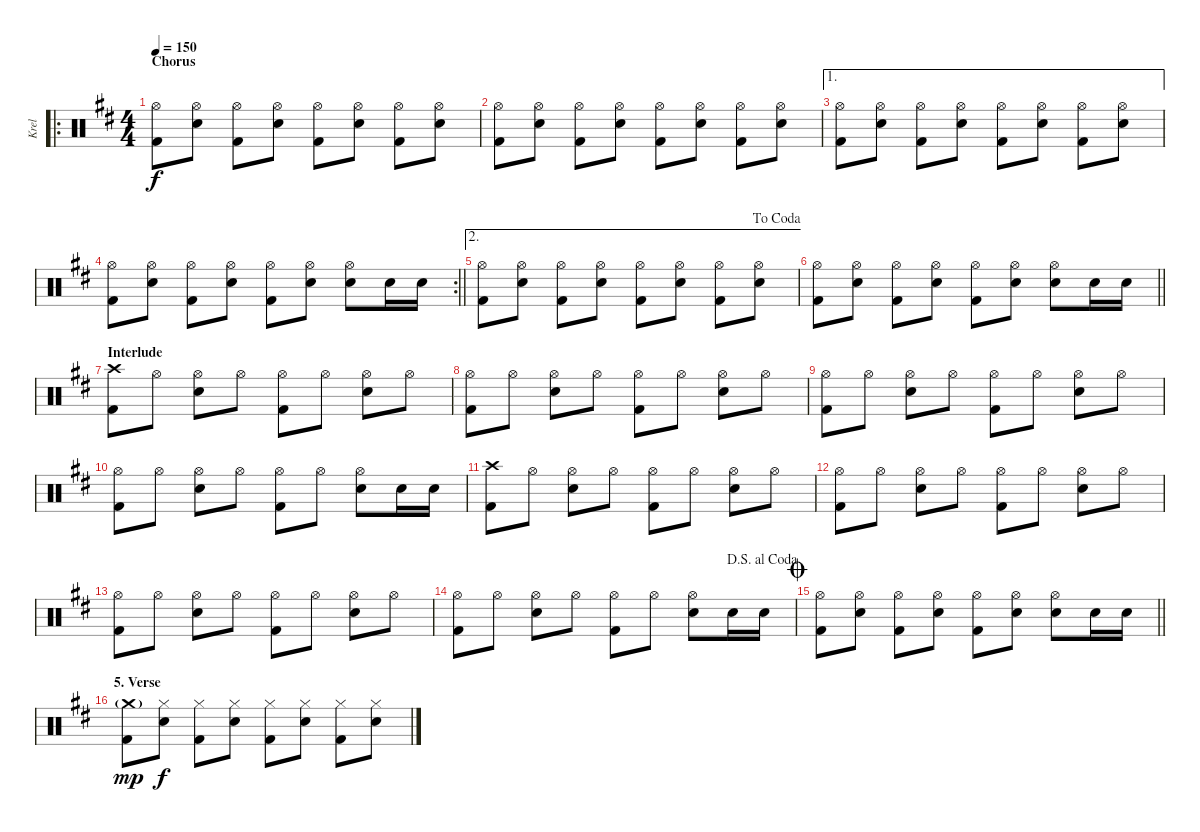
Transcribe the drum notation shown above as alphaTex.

\track ("Krel" "Krel") {instrument percussion}
\staff {score}
\articulation defaults
\ro
\ts (4 4)
\section ("" "Chorus")
\tempo 150
\clef neutral
\ks d
("Hi-Hat (open)" "Kick (hit) 2").8{dy f} ("Hi-Hat (open)" "Snare (hit) 2").8 ("Hi-Hat (open)" "Kick (hit) 2").8 ("Hi-Hat (open)" "Snare (hit) 2").8 ("Hi-Hat (open)" "Kick (hit) 2").8 ("Hi-Hat (open)" "Snare (hit) 2").8 ("Hi-Hat (open)" "Kick (hit) 2").8 ("Hi-Hat (open)" "Snare (hit) 2").8 |
("Hi-Hat (open)" "Kick (hit) 2").8 ("Hi-Hat (open)" "Snare (hit) 2").8 ("Hi-Hat (open)" "Kick (hit) 2").8 ("Hi-Hat (open)" "Snare (hit) 2").8 ("Hi-Hat (open)" "Kick (hit) 2").8 ("Hi-Hat (open)" "Snare (hit) 2").8 ("Hi-Hat (open)" "Kick (hit) 2").8 ("Hi-Hat (open)" "Snare (hit) 2").8 |
\ae 1
("Hi-Hat (open)" "Kick (hit) 2").8 ("Hi-Hat (open)" "Snare (hit) 2").8 ("Hi-Hat (open)" "Kick (hit) 2").8 ("Hi-Hat (open)" "Snare (hit) 2").8 ("Hi-Hat (open)" "Kick (hit) 2").8 ("Hi-Hat (open)" "Snare (hit) 2").8 ("Hi-Hat (open)" "Kick (hit) 2").8 ("Hi-Hat (open)" "Snare (hit) 2").8 |
\rc 2
\barLineRight lightlight
("Hi-Hat (open)" "Kick (hit) 2").8 ("Hi-Hat (open)" "Snare (hit) 2").8 ("Hi-Hat (open)" "Kick (hit) 2").8 ("Hi-Hat (open)" "Snare (hit) 2").8 ("Hi-Hat (open)" "Kick (hit) 2").8 ("Hi-Hat (open)" "Snare (hit) 2").8 ("Hi-Hat (open)" "Snare (hit) 2").8 "Snare (hit) 2".16 "Snare (hit) 2".16 |
\ae 2
\jump dacoda
("Hi-Hat (open)" "Kick (hit) 2").8 ("Hi-Hat (open)" "Snare (hit) 2").8 ("Hi-Hat (open)" "Kick (hit) 2").8 ("Hi-Hat (open)" "Snare (hit) 2").8 ("Hi-Hat (open)" "Kick (hit) 2").8 ("Hi-Hat (open)" "Snare (hit) 2").8 ("Hi-Hat (open)" "Kick (hit) 2").8 ("Hi-Hat (open)" "Snare (hit) 2").8 |
\barLineRight lightlight
("Hi-Hat (open)" "Kick (hit) 2").8 ("Hi-Hat (open)" "Snare (hit) 2").8 ("Hi-Hat (open)" "Kick (hit) 2").8 ("Hi-Hat (open)" "Snare (hit) 2").8 ("Hi-Hat (open)" "Kick (hit) 2").8 ("Hi-Hat (open)" "Snare (hit) 2").8 ("Hi-Hat (open)" "Snare (hit) 2").8 "Snare (hit) 2".16 "Snare (hit) 2".16 |
\section ("" "Interlude")
("Crash high (hit)" "Kick (hit) 2").8 "Hi-Hat (open)".8 ("Hi-Hat (open)" "Snare (hit) 2").8 "Hi-Hat (open)".8 ("Hi-Hat (open)" "Kick (hit) 2").8 "Hi-Hat (open)".8 ("Hi-Hat (open)" "Snare (hit) 2").8 "Hi-Hat (open)".8 |
("Hi-Hat (open)" "Kick (hit) 2").8 "Hi-Hat (open)".8 ("Hi-Hat (open)" "Snare (hit) 2").8 "Hi-Hat (open)".8 ("Hi-Hat (open)" "Kick (hit) 2").8 "Hi-Hat (open)".8 ("Hi-Hat (open)" "Snare (hit) 2").8 "Hi-Hat (open)".8 |
("Hi-Hat (open)" "Kick (hit) 2").8 "Hi-Hat (open)".8 ("Hi-Hat (open)" "Snare (hit) 2").8 "Hi-Hat (open)".8 ("Hi-Hat (open)" "Kick (hit) 2").8 "Hi-Hat (open)".8 ("Hi-Hat (open)" "Snare (hit) 2").8 "Hi-Hat (open)".8 |
("Hi-Hat (open)" "Kick (hit) 2").8 "Hi-Hat (open)".8 ("Hi-Hat (open)" "Snare (hit) 2").8 "Hi-Hat (open)".8 ("Hi-Hat (open)" "Kick (hit) 2").8 "Hi-Hat (open)".8 ("Hi-Hat (open)" "Snare (hit) 2").8 "Snare (hit) 2".16 "Snare (hit) 2".16 |
("Crash high (hit)" "Kick (hit) 2").8 "Hi-Hat (open)".8 ("Hi-Hat (open)" "Snare (hit) 2").8 "Hi-Hat (open)".8 ("Hi-Hat (open)" "Kick (hit) 2").8 "Hi-Hat (open)".8 ("Hi-Hat (open)" "Snare (hit) 2").8 "Hi-Hat (open)".8 |
("Hi-Hat (open)" "Kick (hit) 2").8 "Hi-Hat (open)".8 ("Hi-Hat (open)" "Snare (hit) 2").8 "Hi-Hat (open)".8 ("Hi-Hat (open)" "Kick (hit) 2").8 "Hi-Hat (open)".8 ("Hi-Hat (open)" "Snare (hit) 2").8 "Hi-Hat (open)".8 |
("Hi-Hat (open)" "Kick (hit) 2").8 "Hi-Hat (open)".8 ("Hi-Hat (open)" "Snare (hit) 2").8 "Hi-Hat (open)".8 ("Hi-Hat (open)" "Kick (hit) 2").8 "Hi-Hat (open)".8 ("Hi-Hat (open)" "Snare (hit) 2").8 "Hi-Hat (open)".8 |
\jump dalsegnoalcoda
("Hi-Hat (open)" "Kick (hit) 2").8 "Hi-Hat (open)".8 ("Hi-Hat (open)" "Snare (hit) 2").8 "Hi-Hat (open)".8 ("Hi-Hat (open)" "Kick (hit) 2").8 "Hi-Hat (open)".8 ("Hi-Hat (open)" "Snare (hit) 2").8 "Snare (hit) 2".16 "Snare (hit) 2".16 |
\jump coda
\barLineRight lightlight
("Hi-Hat (open)" "Kick (hit) 2").8 ("Hi-Hat (open)" "Snare (hit) 2").8 ("Hi-Hat (open)" "Kick (hit) 2").8 ("Hi-Hat (open)" "Snare (hit) 2").8 ("Hi-Hat (open)" "Kick (hit) 2").8 ("Hi-Hat (open)" "Snare (hit) 2").8 ("Hi-Hat (open)" "Snare (hit) 2").8 "Snare (hit) 2".16 "Snare (hit) 2".16 |
\section ("" "5. Verse")
("Crash medium (hit)"{g} "Kick (hit) 2").8{dy mp} ("Hi-Hat (closed)" "Snare (hit) 2").8{dy f} ("Hi-Hat (closed)" "Kick (hit) 2").8 ("Hi-Hat (closed)" "Snare (hit) 2").8 ("Hi-Hat (closed)" "Kick (hit) 2").8 ("Hi-Hat (closed)" "Snare (hit) 2").8 ("Hi-Hat (closed)" "Kick (hit) 2").8 ("Hi-Hat (closed)" "Snare (hit) 2").8
